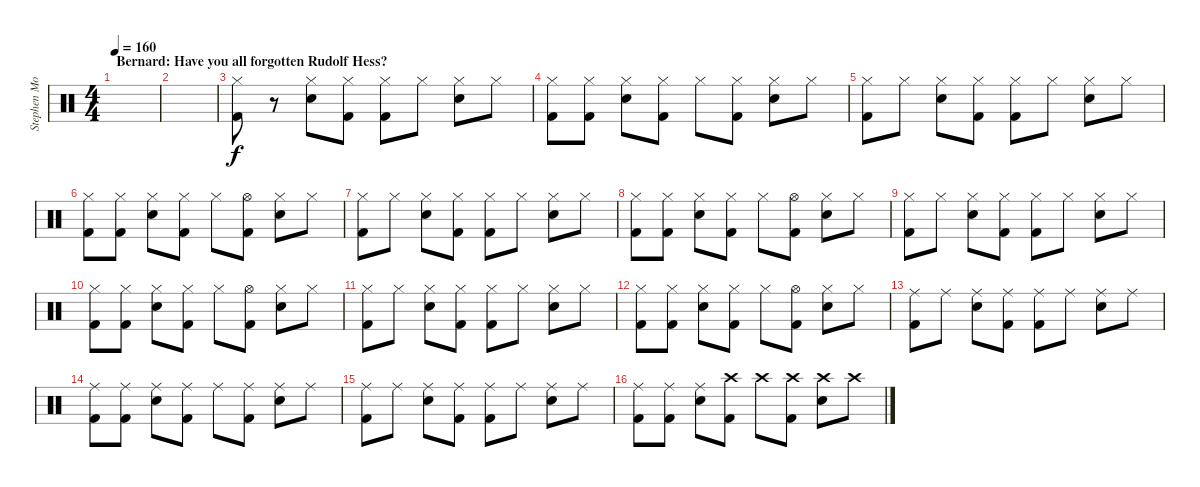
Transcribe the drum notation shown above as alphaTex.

\track ("Stephen Morris - Drums" "Stephen Mo") {instrument percussion}
\staff {score}
\articulation defaults
\ts (4 4)
\section ("" "Bernard: Have you all forgotten Rudolf Hess?")
\tempo 160
\clef neutral
\ks c
|
|
("Hi-Hat (closed)" "Kick (hit) 2").8 r.8 ("Hi-Hat (closed)" "Snare (hit) 2").8 ("Hi-Hat (closed)" "Kick (hit) 2").8 ("Hi-Hat (closed)" "Kick (hit) 2").8 "Hi-Hat (closed)".8 ("Hi-Hat (closed)" "Snare (hit) 2").8 "Hi-Hat (closed)".8 |
("Hi-Hat (closed)" "Kick (hit) 2").8 ("Hi-Hat (closed)" "Kick (hit) 2").8 ("Hi-Hat (closed)" "Snare (hit) 2").8 ("Hi-Hat (closed)" "Kick (hit) 2").8 "Hi-Hat (closed)".8 ("Hi-Hat (closed)" "Kick (hit) 2").8 ("Hi-Hat (closed)" "Snare (hit) 2").8 "Hi-Hat (closed)".8 |
("Hi-Hat (closed)" "Kick (hit) 2").8 "Hi-Hat (closed)".8 ("Hi-Hat (closed)" "Snare (hit) 2").8 ("Hi-Hat (closed)" "Kick (hit) 2").8 ("Hi-Hat (closed)" "Kick (hit) 2").8 "Hi-Hat (closed)".8 ("Hi-Hat (closed)" "Snare (hit) 2").8 "Hi-Hat (closed)".8 |
("Hi-Hat (closed)" "Kick (hit) 2").8 ("Hi-Hat (closed)" "Kick (hit) 2").8 ("Hi-Hat (closed)" "Snare (hit) 2").8 ("Hi-Hat (closed)" "Kick (hit) 2").8 "Hi-Hat (closed)".8 ("Hi-Hat (open)" "Kick (hit) 2").8 ("Hi-Hat (closed)" "Snare (hit) 2").8 "Hi-Hat (closed)".8 |
("Hi-Hat (closed)" "Kick (hit) 2").8 "Hi-Hat (closed)".8 ("Hi-Hat (closed)" "Snare (hit) 2").8 ("Hi-Hat (closed)" "Kick (hit) 2").8 ("Hi-Hat (closed)" "Kick (hit) 2").8 "Hi-Hat (closed)".8 ("Hi-Hat (closed)" "Snare (hit) 2").8 "Hi-Hat (closed)".8 |
("Hi-Hat (closed)" "Kick (hit) 2").8 ("Hi-Hat (closed)" "Kick (hit) 2").8 ("Hi-Hat (closed)" "Snare (hit) 2").8 ("Hi-Hat (closed)" "Kick (hit) 2").8 "Hi-Hat (closed)".8 ("Hi-Hat (open)" "Kick (hit) 2").8 ("Hi-Hat (closed)" "Snare (hit) 2").8 "Hi-Hat (closed)".8 |
("Hi-Hat (closed)" "Kick (hit) 2").8 "Hi-Hat (closed)".8 ("Hi-Hat (closed)" "Snare (hit) 2").8 ("Hi-Hat (closed)" "Kick (hit) 2").8 ("Hi-Hat (closed)" "Kick (hit) 2").8 "Hi-Hat (closed)".8 ("Hi-Hat (closed)" "Snare (hit) 2").8 "Hi-Hat (closed)".8 |
("Hi-Hat (closed)" "Kick (hit) 2").8 ("Hi-Hat (closed)" "Kick (hit) 2").8 ("Hi-Hat (closed)" "Snare (hit) 2").8 ("Hi-Hat (closed)" "Kick (hit) 2").8 "Hi-Hat (closed)".8 ("Hi-Hat (open)" "Kick (hit) 2").8 ("Hi-Hat (closed)" "Snare (hit) 2").8 "Hi-Hat (closed)".8 |
("Hi-Hat (closed)" "Kick (hit) 2").8 "Hi-Hat (closed)".8 ("Hi-Hat (closed)" "Snare (hit) 2").8 ("Hi-Hat (closed)" "Kick (hit) 2").8 ("Hi-Hat (closed)" "Kick (hit) 2").8 "Hi-Hat (closed)".8 ("Hi-Hat (closed)" "Snare (hit) 2").8 "Hi-Hat (closed)".8 |
("Hi-Hat (closed)" "Kick (hit) 2").8 ("Hi-Hat (closed)" "Kick (hit) 2").8 ("Hi-Hat (closed)" "Snare (hit) 2").8 ("Hi-Hat (closed)" "Kick (hit) 2").8 "Hi-Hat (closed)".8 ("Hi-Hat (open)" "Kick (hit) 2").8 ("Hi-Hat (closed)" "Snare (hit) 2").8 "Hi-Hat (closed)".8 |
("Ride (middle)" "Kick (hit) 2").8 "Ride (middle)".8 ("Ride (middle)" "Snare (hit) 2").8 ("Ride (middle)" "Kick (hit) 2").8 ("Ride (middle)" "Kick (hit) 2").8 "Ride (middle)".8 ("Ride (middle)" "Snare (hit) 2").8 "Ride (middle)".8 |
("Ride (middle)" "Kick (hit) 2").8 ("Ride (middle)" "Kick (hit) 2").8 ("Ride (middle)" "Snare (hit) 2").8 ("Ride (middle)" "Kick (hit) 2").8 "Ride (middle)".8 ("Ride (middle)" "Kick (hit) 2").8 ("Ride (middle)" "Snare (hit) 2").8 "Ride (middle)".8 |
("Ride (middle)" "Kick (hit) 2").8 "Ride (middle)".8 ("Ride (middle)" "Snare (hit) 2").8 ("Ride (middle)" "Kick (hit) 2").8 ("Ride (middle)" "Kick (hit) 2").8 "Ride (middle)".8 ("Ride (middle)" "Snare (hit) 2").8 "Ride (middle)".8 |
("Ride (middle)" "Kick (hit) 2").8 ("Ride (middle)" "Kick (hit) 2").8 ("Ride (middle)" "Snare (hit) 2").8 ("Crash high (hit)" "Kick (hit) 2").8 "Crash high (hit)".8 ("Crash high (hit)" "Kick (hit) 2").8 ("Crash high (hit)" "Snare (hit) 2").8 "Crash high (hit)".8
